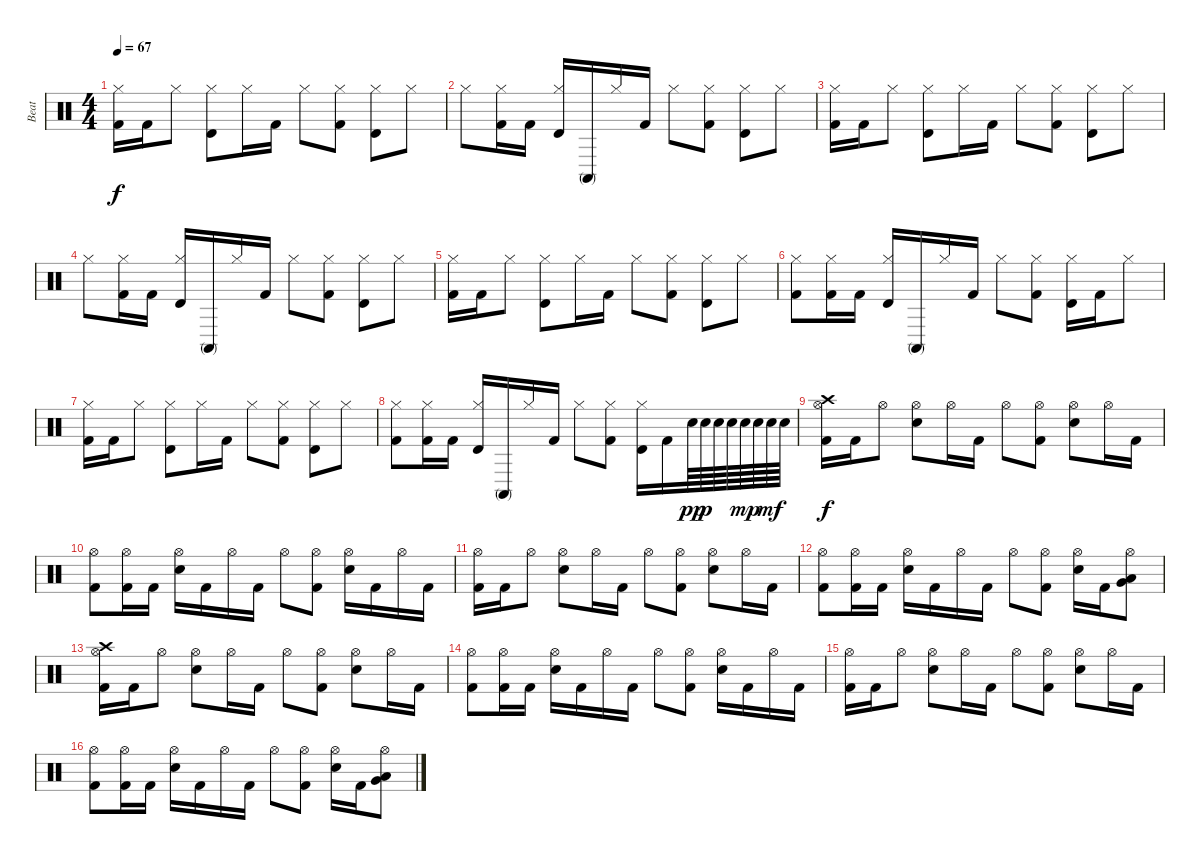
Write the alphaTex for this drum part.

\track ("Beat" "Beat") {instrument percussion}
\staff {score}
\articulation defaults
\ts (4 4)
\tempo 67
\clef neutral
\ks c
("Hi-Hat (closed)" "Kick (hit) 2").16{dy f} "Kick (hit) 2".16 "Hi-Hat (closed)".8 ("Hi-Hat (closed)" "Timbale high (hit)").8 "Hi-Hat (closed)".16 "Kick (hit) 2".16 "Hi-Hat (closed)".8 ("Hi-Hat (closed)" "Kick (hit) 2").8 ("Hi-Hat (closed)" "Timbale high (hit)").8 "Hi-Hat (closed)".8 |
"Hi-Hat (closed)".8 ("Hi-Hat (closed)" "Kick (hit) 2").16 "Kick (hit) 2".16 ("Hi-Hat (closed)" "Timbale high (hit)").16 "Conga high (mute)".16 "Hi-Hat (closed)".16 "Kick (hit) 2".16 "Hi-Hat (closed)".8 ("Hi-Hat (closed)" "Kick (hit) 2").8 ("Hi-Hat (closed)" "Timbale high (hit)").8 "Hi-Hat (closed)".8 |
("Hi-Hat (closed)" "Kick (hit) 2").16 "Kick (hit) 2".16 "Hi-Hat (closed)".8 ("Hi-Hat (closed)" "Timbale high (hit)").8 "Hi-Hat (closed)".16 "Kick (hit) 2".16 "Hi-Hat (closed)".8 ("Hi-Hat (closed)" "Kick (hit) 2").8 ("Hi-Hat (closed)" "Timbale high (hit)").8 "Hi-Hat (closed)".8 |
"Hi-Hat (closed)".8 ("Hi-Hat (closed)" "Kick (hit) 2").16 "Kick (hit) 2".16 ("Hi-Hat (closed)" "Timbale high (hit)").16 "Conga high (mute)".16 "Hi-Hat (closed)".16 "Kick (hit) 2".16 "Hi-Hat (closed)".8 ("Hi-Hat (closed)" "Kick (hit) 2").8 ("Hi-Hat (closed)" "Timbale high (hit)").8 "Hi-Hat (closed)".8 |
("Hi-Hat (closed)" "Kick (hit) 2").16 "Kick (hit) 2".16 "Hi-Hat (closed)".8 ("Hi-Hat (closed)" "Timbale high (hit)").8 "Hi-Hat (closed)".16 "Kick (hit) 2".16 "Hi-Hat (closed)".8 ("Hi-Hat (closed)" "Kick (hit) 2").8 ("Hi-Hat (closed)" "Timbale high (hit)").8 "Hi-Hat (closed)".8 |
("Hi-Hat (closed)" "Kick (hit) 2").8 ("Hi-Hat (closed)" "Kick (hit) 2").16 "Kick (hit) 2".16 ("Hi-Hat (closed)" "Timbale high (hit)").16 "Conga high (mute)".16 "Hi-Hat (closed)".16 "Kick (hit) 2".16 "Hi-Hat (closed)".8 ("Hi-Hat (closed)" "Kick (hit) 2").8 ("Hi-Hat (closed)" "Timbale high (hit)").16 "Kick (hit) 2".16 "Hi-Hat (closed)".8 |
("Hi-Hat (closed)" "Kick (hit) 2").16 "Kick (hit) 2".16 "Hi-Hat (closed)".8 ("Hi-Hat (closed)" "Timbale high (hit)").8 "Hi-Hat (closed)".16 "Kick (hit) 2".16 "Hi-Hat (closed)".8 ("Hi-Hat (closed)" "Kick (hit) 2").8 ("Hi-Hat (closed)" "Timbale high (hit)").8 "Hi-Hat (closed)".8 |
("Hi-Hat (closed)" "Kick (hit) 2").8 ("Hi-Hat (closed)" "Kick (hit) 2").16 "Kick (hit) 2".16 ("Hi-Hat (closed)" "Timbale high (hit)").16 "Conga high (mute)".16 "Hi-Hat (closed)".16 "Kick (hit) 2".16 "Hi-Hat (closed)".8 ("Hi-Hat (closed)" "Kick (hit) 2").8 ("Hi-Hat (closed)" "Timbale high (hit)").16 "Kick (hit) 2".16 "Electric Snare (hit)".64{dy pp} "Electric Snare (hit)".64{dy p} "Electric Snare (hit)".64 "Electric Snare (hit)".64 "Electric Snare (hit)".64{dy mp} "Electric Snare (hit)".64 "Electric Snare (hit)".64{dy mf} "Electric Snare (hit)".64 |
("Crash high (hit)" "Hi-Hat (open)" "Kick (hit) 2").16{dy f} "Kick (hit) 2".16 "Hi-Hat (open)".8 ("Hi-Hat (open)" "Electric Snare (hit)").8 "Hi-Hat (open)".16 "Kick (hit) 2".16 "Hi-Hat (open)".8 ("Hi-Hat (open)" "Kick (hit) 2").8 ("Hi-Hat (open)" "Electric Snare (hit)").8 "Hi-Hat (open)".16 "Kick (hit) 2".16 |
("Hi-Hat (open)" "Kick (hit) 2").8 ("Hi-Hat (open)" "Kick (hit) 2").16 "Kick (hit) 2".16 ("Hi-Hat (open)" "Electric Snare (hit)").16 "Kick (hit) 2".16 "Hi-Hat (open)".16 "Kick (hit) 2".16 "Hi-Hat (open)".8 ("Hi-Hat (open)" "Kick (hit) 2").8 ("Hi-Hat (open)" "Electric Snare (hit)").16 "Kick (hit) 2".16 "Hi-Hat (open)".16 "Kick (hit) 2".16 |
("Hi-Hat (open)" "Kick (hit) 2").16 "Kick (hit) 2".16 "Hi-Hat (open)".8 ("Hi-Hat (open)" "Electric Snare (hit)").8 "Hi-Hat (open)".16 "Kick (hit) 2".16 "Hi-Hat (open)".8 ("Hi-Hat (open)" "Kick (hit) 2").8 ("Hi-Hat (open)" "Electric Snare (hit)").8 "Hi-Hat (open)".16 "Kick (hit) 2".16 |
("Hi-Hat (open)" "Kick (hit) 2").8 ("Hi-Hat (open)" "Kick (hit) 2").16 "Kick (hit) 2".16 ("Hi-Hat (open)" "Electric Snare (hit)").16 "Kick (hit) 2".16 "Hi-Hat (open)".16 "Kick (hit) 2".16 "Hi-Hat (open)".8 ("Hi-Hat (open)" "Kick (hit) 2").8 ("Hi-Hat (open)" "Electric Snare (hit)").16 "Kick (hit) 2".16 ("Hi-Hat (open)" "Very Low Tom (hit)" "Low Tom (hit)").8 |
("Crash high (hit)" "Hi-Hat (open)" "Kick (hit) 2").16 "Kick (hit) 2".16 "Hi-Hat (open)".8 ("Hi-Hat (open)" "Electric Snare (hit)").8 "Hi-Hat (open)".16 "Kick (hit) 2".16 "Hi-Hat (open)".8 ("Hi-Hat (open)" "Kick (hit) 2").8 ("Hi-Hat (open)" "Electric Snare (hit)").8 "Hi-Hat (open)".16 "Kick (hit) 2".16 |
("Hi-Hat (open)" "Kick (hit) 2").8 ("Hi-Hat (open)" "Kick (hit) 2").16 "Kick (hit) 2".16 ("Hi-Hat (open)" "Electric Snare (hit)").16 "Kick (hit) 2".16 "Hi-Hat (open)".16 "Kick (hit) 2".16 "Hi-Hat (open)".8 ("Hi-Hat (open)" "Kick (hit) 2").8 ("Hi-Hat (open)" "Electric Snare (hit)").16 "Kick (hit) 2".16 "Hi-Hat (open)".16 "Kick (hit) 2".16 |
("Hi-Hat (open)" "Kick (hit) 2").16 "Kick (hit) 2".16 "Hi-Hat (open)".8 ("Hi-Hat (open)" "Electric Snare (hit)").8 "Hi-Hat (open)".16 "Kick (hit) 2".16 "Hi-Hat (open)".8 ("Hi-Hat (open)" "Kick (hit) 2").8 ("Hi-Hat (open)" "Electric Snare (hit)").8 "Hi-Hat (open)".16 "Kick (hit) 2".16 |
("Hi-Hat (open)" "Kick (hit) 2").8 ("Hi-Hat (open)" "Kick (hit) 2").16 "Kick (hit) 2".16 ("Hi-Hat (open)" "Electric Snare (hit)").16 "Kick (hit) 2".16 "Hi-Hat (open)".16 "Kick (hit) 2".16 "Hi-Hat (open)".8 ("Hi-Hat (open)" "Kick (hit) 2").8 ("Hi-Hat (open)" "Electric Snare (hit)").16 "Kick (hit) 2".16 ("Hi-Hat (open)" "Very Low Tom (hit)" "Low Tom (hit)").8
